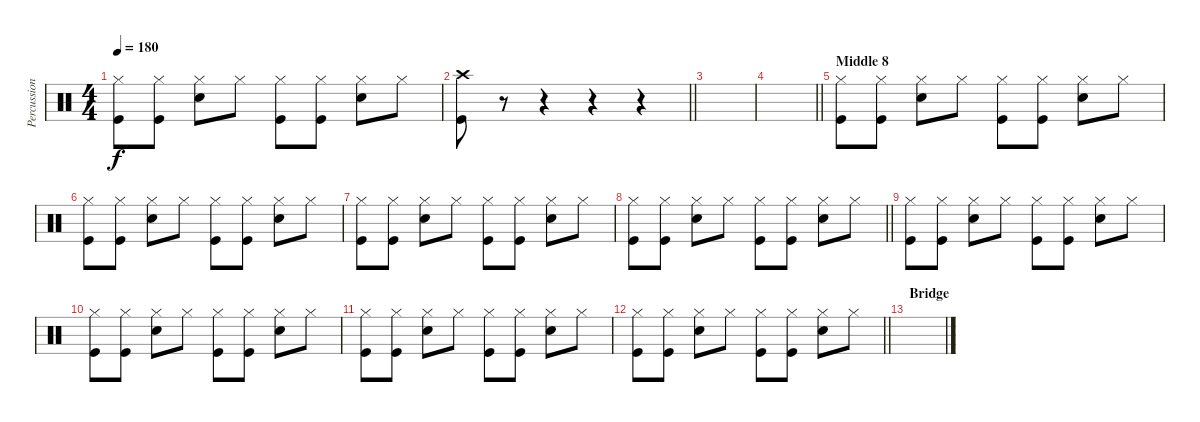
\track ("Percussion" "Percussion") {instrument percussion}
\staff {score}
\articulation defaults
\ts (4 4)
\tempo 180
\clef neutral
\ks c
("Hi-Hat (closed)" "Kick (hit)").8{dy f} ("Hi-Hat (closed)" "Kick (hit)").8 ("Hi-Hat (closed)" "Snare (hit) 2").8 "Hi-Hat (closed)".8 ("Hi-Hat (closed)" "Kick (hit)").8 ("Hi-Hat (closed)" "Kick (hit)").8 ("Hi-Hat (closed)" "Snare (hit) 2").8 "Hi-Hat (closed)".8 |
\barLineRight lightlight
("Crash high (hit)" "Kick (hit)").8 r.8 r.4 r.4 r.4 |
|
\barLineRight lightlight
|
\section ("" "Middle 8")
("Hi-Hat (closed)" "Kick (hit)").8 ("Hi-Hat (closed)" "Kick (hit)").8 ("Hi-Hat (closed)" "Snare (hit) 2").8 "Hi-Hat (closed)".8 ("Hi-Hat (closed)" "Kick (hit)").8 ("Hi-Hat (closed)" "Kick (hit)").8 ("Hi-Hat (closed)" "Snare (hit) 2").8 "Hi-Hat (closed)".8 |
("Hi-Hat (closed)" "Kick (hit)").8 ("Hi-Hat (closed)" "Kick (hit)").8 ("Hi-Hat (closed)" "Snare (hit) 2").8 "Hi-Hat (closed)".8 ("Hi-Hat (closed)" "Kick (hit)").8 ("Hi-Hat (closed)" "Kick (hit)").8 ("Hi-Hat (closed)" "Snare (hit) 2").8 "Hi-Hat (closed)".8 |
("Hi-Hat (closed)" "Kick (hit)").8 ("Hi-Hat (closed)" "Kick (hit)").8 ("Hi-Hat (closed)" "Snare (hit) 2").8 "Hi-Hat (closed)".8 ("Hi-Hat (closed)" "Kick (hit)").8 ("Hi-Hat (closed)" "Kick (hit)").8 ("Hi-Hat (closed)" "Snare (hit) 2").8 "Hi-Hat (closed)".8 |
\barLineRight lightlight
("Hi-Hat (closed)" "Kick (hit)").8 ("Hi-Hat (closed)" "Kick (hit)").8 ("Hi-Hat (closed)" "Snare (hit) 2").8 "Hi-Hat (closed)".8 ("Hi-Hat (closed)" "Kick (hit)").8 ("Hi-Hat (closed)" "Kick (hit)").8 ("Hi-Hat (closed)" "Snare (hit) 2").8 "Hi-Hat (closed)".8 |
("Hi-Hat (closed)" "Kick (hit)").8 ("Hi-Hat (closed)" "Kick (hit)").8 ("Hi-Hat (closed)" "Snare (hit) 2").8 "Hi-Hat (closed)".8 ("Hi-Hat (closed)" "Kick (hit)").8 ("Hi-Hat (closed)" "Kick (hit)").8 ("Hi-Hat (closed)" "Snare (hit) 2").8 "Hi-Hat (closed)".8 |
("Hi-Hat (closed)" "Kick (hit)").8 ("Hi-Hat (closed)" "Kick (hit)").8 ("Hi-Hat (closed)" "Snare (hit) 2").8 "Hi-Hat (closed)".8 ("Hi-Hat (closed)" "Kick (hit)").8 ("Hi-Hat (closed)" "Kick (hit)").8 ("Hi-Hat (closed)" "Snare (hit) 2").8 "Hi-Hat (closed)".8 |
("Hi-Hat (closed)" "Kick (hit)").8 ("Hi-Hat (closed)" "Kick (hit)").8 ("Hi-Hat (closed)" "Snare (hit) 2").8 "Hi-Hat (closed)".8 ("Hi-Hat (closed)" "Kick (hit)").8 ("Hi-Hat (closed)" "Kick (hit)").8 ("Hi-Hat (closed)" "Snare (hit) 2").8 "Hi-Hat (closed)".8 |
\barLineRight lightlight
("Hi-Hat (closed)" "Kick (hit)").8 ("Hi-Hat (closed)" "Kick (hit)").8 ("Hi-Hat (closed)" "Snare (hit) 2").8 "Hi-Hat (closed)".8 ("Hi-Hat (closed)" "Kick (hit)").8 ("Hi-Hat (closed)" "Kick (hit)").8 ("Hi-Hat (closed)" "Snare (hit) 2").8 "Hi-Hat (closed)".8 |
\section ("" "Bridge")
